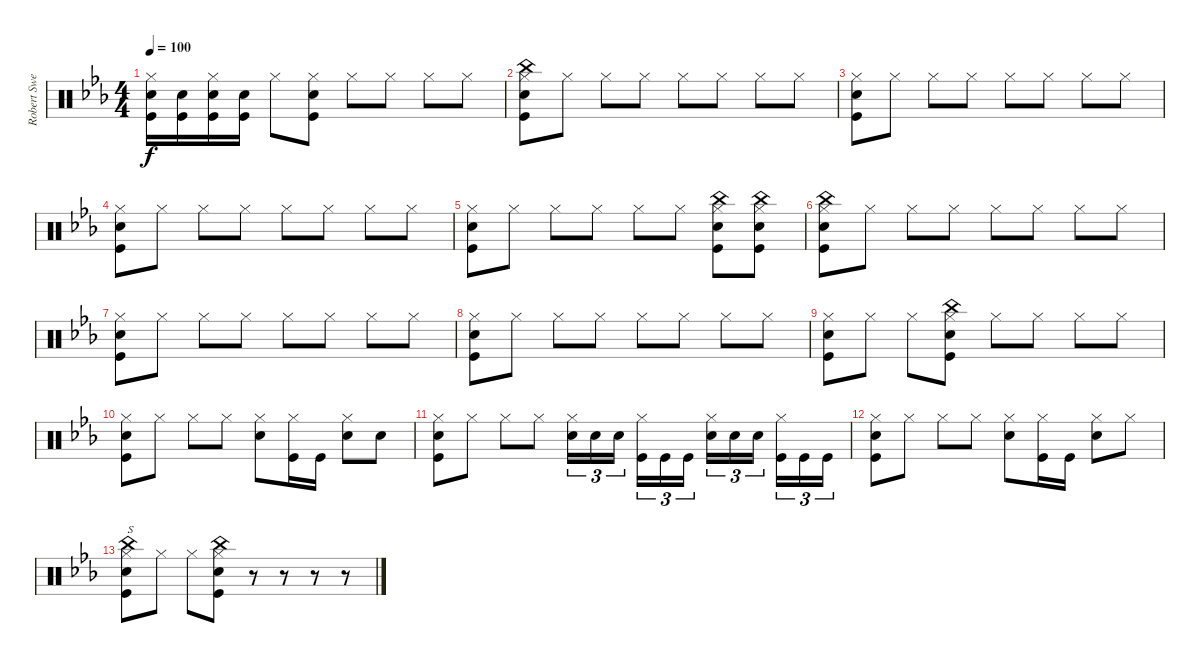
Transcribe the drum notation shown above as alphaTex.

\track ("Robert Sweet" "Robert Swe") {instrument percussion}
\staff {score}
\articulation defaults
\ts (4 4)
\tempo 100
\clef neutral
\ks cminor
("Hi-Hat (closed)" "Snare (hit) 2" "Kick (hit)").16{dy f} ("Snare (hit) 2" "Kick (hit)").16 ("Hi-Hat (closed)" "Snare (hit) 2" "Kick (hit)").16 ("Snare (hit) 2" "Kick (hit)").16 "Hi-Hat (closed)".8 ("Hi-Hat (closed)" "Snare (hit) 2" "Kick (hit)").8 "Hi-Hat (closed)".8 "Hi-Hat (closed)".8 "Hi-Hat (closed)".8 "Hi-Hat (closed)".8 |
("Hi-Hat (closed)" "China (hit)" "Snare (hit) 2" "Kick (hit)").8 "Hi-Hat (closed)".8 "Hi-Hat (closed)".8 "Hi-Hat (closed)".8 "Hi-Hat (closed)".8 "Hi-Hat (closed)".8 "Hi-Hat (closed)".8 "Hi-Hat (closed)".8 |
("Hi-Hat (closed)" "Snare (hit) 2" "Kick (hit)").8 "Hi-Hat (closed)".8 "Hi-Hat (closed)".8 "Hi-Hat (closed)".8 "Hi-Hat (closed)".8 "Hi-Hat (closed)".8 "Hi-Hat (closed)".8 "Hi-Hat (closed)".8 |
("Hi-Hat (closed)" "Snare (hit) 2" "Kick (hit)").8 "Hi-Hat (closed)".8 "Hi-Hat (closed)".8 "Hi-Hat (closed)".8 "Hi-Hat (closed)".8 "Hi-Hat (closed)".8 "Hi-Hat (closed)".8 "Hi-Hat (closed)".8 |
("Hi-Hat (closed)" "Snare (hit) 2" "Kick (hit)").8 "Hi-Hat (closed)".8 "Hi-Hat (closed)".8 "Hi-Hat (closed)".8 "Hi-Hat (closed)".8 "Hi-Hat (closed)".8 ("Hi-Hat (closed)" "China (hit)" "Snare (hit) 2" "Kick (hit)").8 ("Hi-Hat (closed)" "China (hit)" "Snare (hit) 2" "Kick (hit)").8 |
("Hi-Hat (closed)" "China (hit)" "Snare (hit) 2" "Kick (hit)").8 "Hi-Hat (closed)".8 "Hi-Hat (closed)".8 "Hi-Hat (closed)".8 "Hi-Hat (closed)".8 "Hi-Hat (closed)".8 "Hi-Hat (closed)".8 "Hi-Hat (closed)".8 |
("Hi-Hat (closed)" "Snare (hit) 2" "Kick (hit)").8 "Hi-Hat (closed)".8 "Hi-Hat (closed)".8 "Hi-Hat (closed)".8 "Hi-Hat (closed)".8 "Hi-Hat (closed)".8 "Hi-Hat (closed)".8 "Hi-Hat (closed)".8 |
("Hi-Hat (closed)" "Snare (hit) 2" "Kick (hit)").8 "Hi-Hat (closed)".8 "Hi-Hat (closed)".8 "Hi-Hat (closed)".8 "Hi-Hat (closed)".8 "Hi-Hat (closed)".8 "Hi-Hat (closed)".8 "Hi-Hat (closed)".8 |
("Hi-Hat (closed)" "Snare (hit) 2" "Kick (hit)").8 "Hi-Hat (closed)".8 "Hi-Hat (closed)".8 ("Hi-Hat (closed)" "China (hit)" "Snare (hit) 2" "Kick (hit)").8 "Hi-Hat (closed)".8 "Hi-Hat (closed)".8 "Hi-Hat (closed)".8 "Hi-Hat (closed)".8 |
("Hi-Hat (closed)" "Snare (hit) 2" "Kick (hit)").8 "Hi-Hat (closed)".8 "Hi-Hat (closed)".8 "Hi-Hat (closed)".8 ("Hi-Hat (closed)" "Snare (hit) 2").8 ("Hi-Hat (closed)" "Kick (hit)").16 "Kick (hit)".16 ("Hi-Hat (closed)" "Snare (hit) 2").8 "Snare (hit) 2".8 |
("Hi-Hat (closed)" "Snare (hit) 2" "Kick (hit)").8 "Hi-Hat (closed)".8 "Hi-Hat (closed)".8 "Hi-Hat (closed)".8 ("Hi-Hat (closed)" "Snare (hit) 2").16{tu (3 2)} "Snare (hit) 2".16{tu (3 2)} "Snare (hit) 2".16{tu (3 2)} ("Hi-Hat (closed)" "Kick (hit)").16{tu (3 2)} "Kick (hit)".16{tu (3 2)} "Kick (hit)".16{tu (3 2)} ("Hi-Hat (closed)" "Snare (hit) 2").16{tu (3 2)} "Snare (hit) 2".16{tu (3 2)} "Snare (hit) 2".16{tu (3 2)} ("Hi-Hat (closed)" "Kick (hit)").16{tu (3 2)} "Kick (hit)".16{tu (3 2)} "Kick (hit)".16{tu (3 2)} |
("Hi-Hat (closed)" "Snare (hit) 2" "Kick (hit)").8 "Hi-Hat (closed)".8 "Hi-Hat (closed)".8 "Hi-Hat (closed)".8 ("Hi-Hat (closed)" "Snare (hit) 2").8 ("Hi-Hat (closed)" "Kick (hit)").16 "Kick (hit)".16 ("Hi-Hat (closed)" "Snare (hit) 2").8 "Hi-Hat (closed)".8 |
("Hi-Hat (closed)" "Kick (hit)" "Snare (hit) 2" "China (hit)").8{s} "Hi-Hat (closed)".8 "Hi-Hat (closed)".8 ("Hi-Hat (closed)" "Kick (hit)" "Snare (hit) 2" "China (hit)").8 r.8 r.8 r.8 r.8
